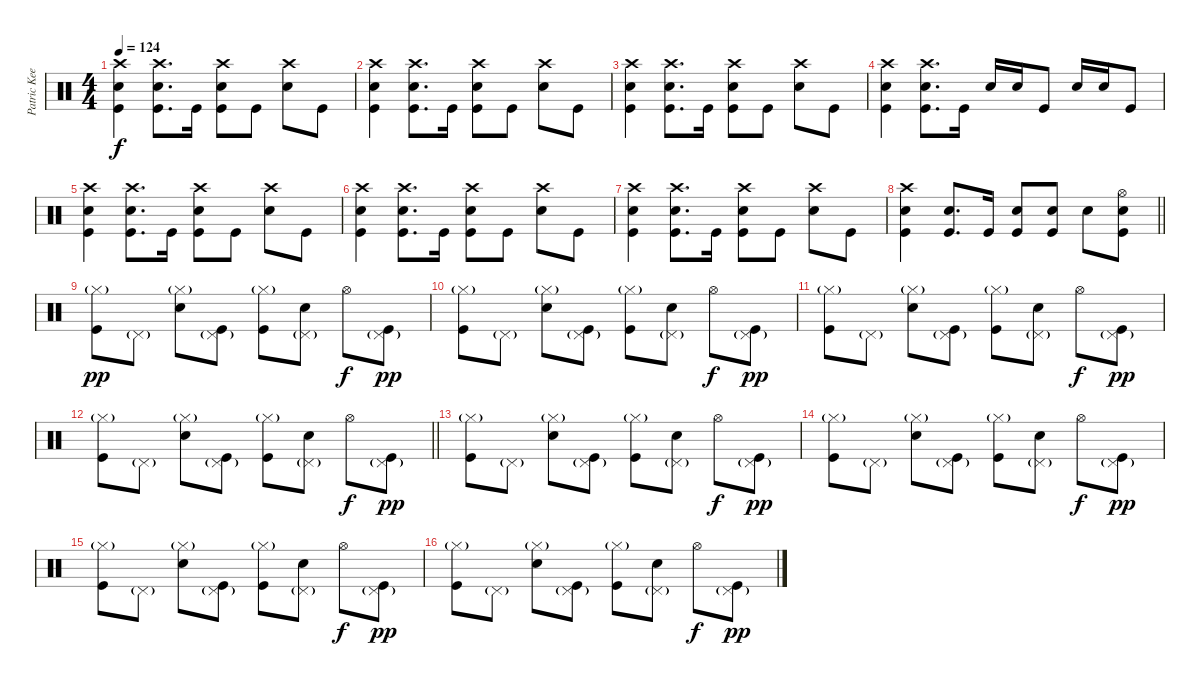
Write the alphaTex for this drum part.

\track ("Patric Keeler (Drums)" "Patric Kee") {instrument percussion}
\staff {score}
\articulation defaults
\ts (4 4)
\tempo 124
\clef neutral
\ks c
("Crash high (hit)" "Snare (hit) 2" "Kick (hit)").4{dy f} ("Crash high (hit)" "Snare (hit) 2" "Kick (hit)").8{d} "Kick (hit)".16 ("Crash high (hit)" "Snare (hit) 2" "Kick (hit)").8 "Kick (hit)".8 ("Crash high (hit)" "Snare (hit) 2").8 "Kick (hit)".8 |
("Crash high (hit)" "Snare (hit) 2" "Kick (hit)").4 ("Crash high (hit)" "Snare (hit) 2" "Kick (hit)").8{d} "Kick (hit)".16 ("Crash high (hit)" "Snare (hit) 2" "Kick (hit)").8 "Kick (hit)".8 ("Crash high (hit)" "Snare (hit) 2").8 "Kick (hit)".8 |
("Crash high (hit)" "Snare (hit) 2" "Kick (hit)").4 ("Crash high (hit)" "Snare (hit) 2" "Kick (hit)").8{d} "Kick (hit)".16 ("Crash high (hit)" "Snare (hit) 2" "Kick (hit)").8 "Kick (hit)".8 ("Crash high (hit)" "Snare (hit) 2").8 "Kick (hit)".8 |
("Crash high (hit)" "Snare (hit) 2" "Kick (hit)").4 ("Crash high (hit)" "Snare (hit) 2" "Kick (hit)").8{d} "Kick (hit)".16 "Snare (hit) 2".16 "Snare (hit) 2".16 "Kick (hit)".8 "Snare (hit) 2".16 "Snare (hit) 2".16 "Kick (hit)".8 |
("Crash high (hit)" "Snare (hit) 2" "Kick (hit)").4 ("Crash high (hit)" "Snare (hit) 2" "Kick (hit)").8{d} "Kick (hit)".16 ("Crash high (hit)" "Snare (hit) 2" "Kick (hit)").8 "Kick (hit)".8 ("Crash high (hit)" "Snare (hit) 2").8 "Kick (hit)".8 |
("Crash high (hit)" "Snare (hit) 2" "Kick (hit)").4 ("Crash high (hit)" "Snare (hit) 2" "Kick (hit)").8{d} "Kick (hit)".16 ("Crash high (hit)" "Snare (hit) 2" "Kick (hit)").8 "Kick (hit)".8 ("Crash high (hit)" "Snare (hit) 2").8 "Kick (hit)".8 |
("Crash high (hit)" "Snare (hit) 2" "Kick (hit)").4 ("Crash high (hit)" "Snare (hit) 2" "Kick (hit)").8{d} "Kick (hit)".16 ("Crash high (hit)" "Snare (hit) 2" "Kick (hit)").8 "Kick (hit)".8 ("Crash high (hit)" "Snare (hit) 2").8 "Kick (hit)".8 |
\barLineRight lightlight
("Crash high (hit)" "Snare (hit) 2" "Kick (hit)").4 ("Snare (hit) 2" "Kick (hit)").8{d} "Kick (hit)".16 ("Snare (hit) 2" "Kick (hit)").8 ("Snare (hit) 2" "Kick (hit)").8 "Snare (hit) 2".8 ("Hi-Hat (open)" "Snare (hit) 2" "Kick (hit)").8 |
("Hi-Hat (closed)"{g} "Kick (hit)").8{dy pp} "Pedal Hi-Hat (hit)"{g}.8 ("Hi-Hat (closed)"{g} "Snare (hit) 2").8 ("Pedal Hi-Hat (hit)"{g} "Kick (hit)").8 ("Hi-Hat (closed)"{g} "Kick (hit)").8 ("Pedal Hi-Hat (hit)"{g} "Snare (hit) 2").8 "Hi-Hat (open)".8{dy f} ("Pedal Hi-Hat (hit)"{g} "Kick (hit)").8{dy pp} |
("Hi-Hat (closed)"{g} "Kick (hit)").8 "Pedal Hi-Hat (hit)"{g}.8 ("Hi-Hat (closed)"{g} "Snare (hit) 2").8 ("Pedal Hi-Hat (hit)"{g} "Kick (hit)").8 ("Hi-Hat (closed)"{g} "Kick (hit)").8 ("Pedal Hi-Hat (hit)"{g} "Snare (hit) 2").8 "Hi-Hat (open)".8{dy f} ("Pedal Hi-Hat (hit)"{g} "Kick (hit)").8{dy pp} |
("Hi-Hat (closed)"{g} "Kick (hit)").8 "Pedal Hi-Hat (hit)"{g}.8 ("Hi-Hat (closed)"{g} "Snare (hit) 2").8 ("Pedal Hi-Hat (hit)"{g} "Kick (hit)").8 ("Hi-Hat (closed)"{g} "Kick (hit)").8 ("Pedal Hi-Hat (hit)"{g} "Snare (hit) 2").8 "Hi-Hat (open)".8{dy f} ("Pedal Hi-Hat (hit)"{g} "Kick (hit)").8{dy pp} |
\barLineRight lightlight
("Hi-Hat (closed)"{g} "Kick (hit)").8 "Pedal Hi-Hat (hit)"{g}.8 ("Hi-Hat (closed)"{g} "Snare (hit) 2").8 ("Pedal Hi-Hat (hit)"{g} "Kick (hit)").8 ("Hi-Hat (closed)"{g} "Kick (hit)").8 ("Pedal Hi-Hat (hit)"{g} "Snare (hit) 2").8 "Hi-Hat (open)".8{dy f} ("Pedal Hi-Hat (hit)"{g} "Kick (hit)").8{dy pp} |
("Hi-Hat (closed)"{g} "Kick (hit)").8 "Pedal Hi-Hat (hit)"{g}.8 ("Hi-Hat (closed)"{g} "Snare (hit) 2").8 ("Pedal Hi-Hat (hit)"{g} "Kick (hit)").8 ("Hi-Hat (closed)"{g} "Kick (hit)").8 ("Pedal Hi-Hat (hit)"{g} "Snare (hit) 2").8 "Hi-Hat (open)".8{dy f} ("Pedal Hi-Hat (hit)"{g} "Kick (hit)").8{dy pp} |
("Hi-Hat (closed)"{g} "Kick (hit)").8 "Pedal Hi-Hat (hit)"{g}.8 ("Hi-Hat (closed)"{g} "Snare (hit) 2").8 ("Pedal Hi-Hat (hit)"{g} "Kick (hit)").8 ("Hi-Hat (closed)"{g} "Kick (hit)").8 ("Pedal Hi-Hat (hit)"{g} "Snare (hit) 2").8 "Hi-Hat (open)".8{dy f} ("Pedal Hi-Hat (hit)"{g} "Kick (hit)").8{dy pp} |
("Hi-Hat (closed)"{g} "Kick (hit)").8 "Pedal Hi-Hat (hit)"{g}.8 ("Hi-Hat (closed)"{g} "Snare (hit) 2").8 ("Pedal Hi-Hat (hit)"{g} "Kick (hit)").8 ("Hi-Hat (closed)"{g} "Kick (hit)").8 ("Pedal Hi-Hat (hit)"{g} "Snare (hit) 2").8 "Hi-Hat (open)".8{dy f} ("Pedal Hi-Hat (hit)"{g} "Kick (hit)").8{dy pp} |
("Hi-Hat (closed)"{g} "Kick (hit)").8 "Pedal Hi-Hat (hit)"{g}.8 ("Hi-Hat (closed)"{g} "Snare (hit) 2").8 ("Pedal Hi-Hat (hit)"{g} "Kick (hit)").8 ("Hi-Hat (closed)"{g} "Kick (hit)").8 ("Pedal Hi-Hat (hit)"{g} "Snare (hit) 2").8 "Hi-Hat (open)".8{dy f} ("Pedal Hi-Hat (hit)"{g} "Kick (hit)").8{dy pp}
